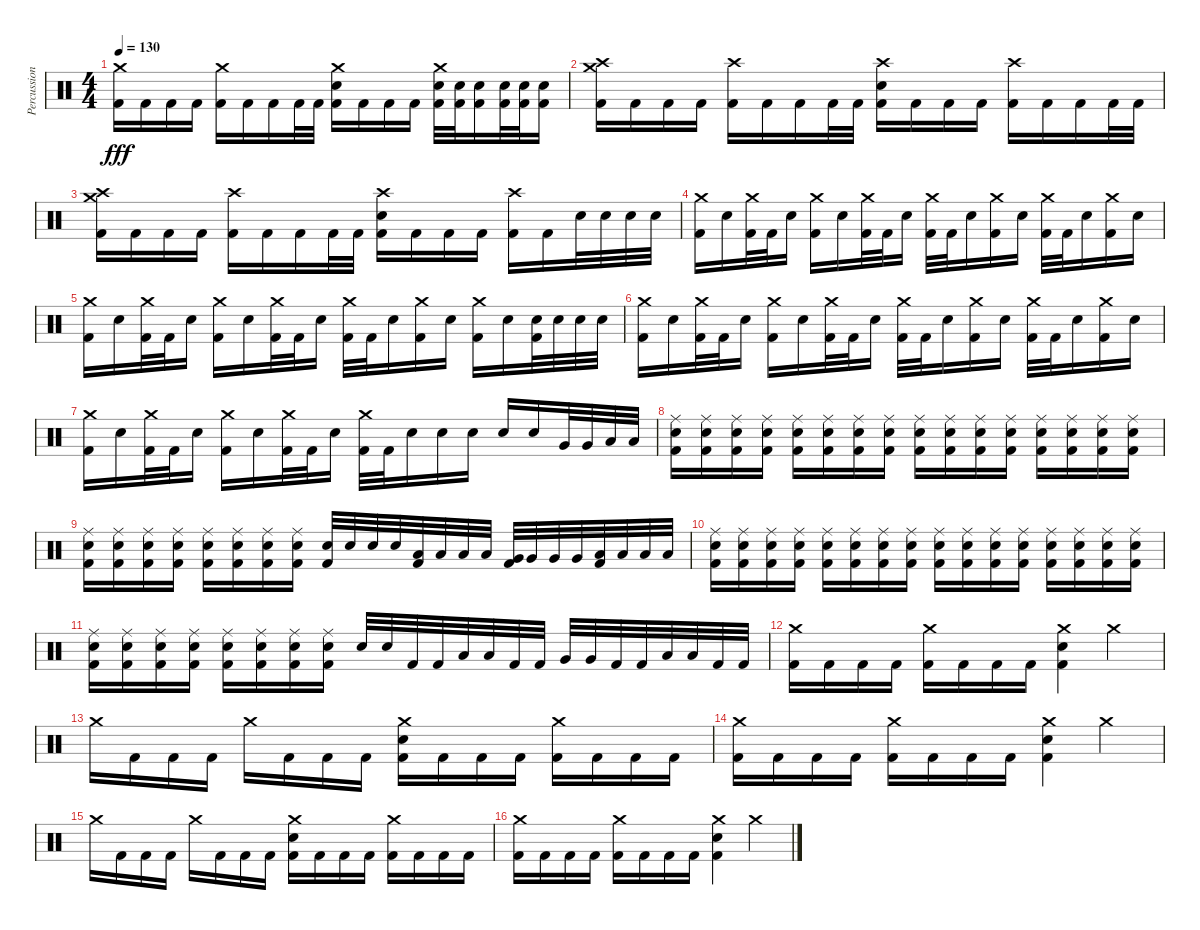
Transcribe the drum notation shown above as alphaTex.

\track ("Percussion" "Percussion") {instrument percussion}
\staff {score}
\articulation defaults
\ts (4 4)
\tempo 130
\clef neutral
\ks c
("Crash medium (hit)" "Kick (hit) 2").16{dy fff} "Kick (hit) 2".16 "Kick (hit) 2".16 "Kick (hit) 2".16 ("Crash medium (hit)" "Kick (hit) 2").16 "Kick (hit) 2".16 "Kick (hit) 2".16 "Kick (hit) 2".32 "Kick (hit) 2".32 ("Crash medium (hit)" "Electric Snare (hit)" "Kick (hit) 2").16 "Kick (hit) 2".16 "Kick (hit) 2".16 "Kick (hit) 2".16 ("Crash medium (hit)" "Electric Snare (hit)" "Kick (hit) 2").32 ("Electric Snare (hit)" "Kick (hit) 2").32 ("Electric Snare (hit)" "Kick (hit) 2").16 ("Electric Snare (hit)" "Kick (hit) 2").32 ("Electric Snare (hit)" "Kick (hit) 2").32 ("Electric Snare (hit)" "Kick (hit) 2").16 |
("Crash high (hit)" "Crash medium (hit)" "Kick (hit) 2").16 "Kick (hit) 2".16 "Kick (hit) 2".16 "Kick (hit) 2".16 ("Crash high (hit)" "Kick (hit) 2").16 "Kick (hit) 2".16 "Kick (hit) 2".16 "Kick (hit) 2".32 "Kick (hit) 2".32 ("Crash high (hit)" "Electric Snare (hit)" "Kick (hit) 2").16 "Kick (hit) 2".16 "Kick (hit) 2".16 "Kick (hit) 2".16 ("Crash high (hit)" "Kick (hit) 2").16 "Kick (hit) 2".16 "Kick (hit) 2".16 "Kick (hit) 2".32 "Kick (hit) 2".32 |
("Crash high (hit)" "Crash medium (hit)" "Kick (hit) 2").16 "Kick (hit) 2".16 "Kick (hit) 2".16 "Kick (hit) 2".16 ("Crash high (hit)" "Kick (hit) 2").16 "Kick (hit) 2".16 "Kick (hit) 2".16 "Kick (hit) 2".32 "Kick (hit) 2".32 ("Crash high (hit)" "Electric Snare (hit)" "Kick (hit) 2").16 "Kick (hit) 2".16 "Kick (hit) 2".16 "Kick (hit) 2".16 ("Crash high (hit)" "Kick (hit) 2").16 "Kick (hit) 2".16 "Electric Snare (hit)".32 "Electric Snare (hit)".32 "Electric Snare (hit)".32 "Electric Snare (hit)".32 |
("Crash medium (hit)" "Kick (hit) 2").16 "Electric Snare (hit)".16 ("Crash medium (hit)" "Kick (hit) 2").32 "Kick (hit) 2".32 "Electric Snare (hit)".16 ("Crash medium (hit)" "Kick (hit) 2").16 "Electric Snare (hit)".16 ("Crash medium (hit)" "Kick (hit) 2").32 "Kick (hit) 2".32 "Electric Snare (hit)".16 ("Crash medium (hit)" "Kick (hit) 2").32 "Kick (hit) 2".32 "Electric Snare (hit)".16 ("Crash medium (hit)" "Kick (hit) 2").16 "Electric Snare (hit)".16 ("Crash medium (hit)" "Kick (hit) 2").32 "Kick (hit) 2".32 "Electric Snare (hit)".16 ("Crash medium (hit)" "Kick (hit) 2").16 "Electric Snare (hit)".16 |
("Crash medium (hit)" "Kick (hit) 2").16 "Electric Snare (hit)".16 ("Crash medium (hit)" "Kick (hit) 2").32 "Kick (hit) 2".32 "Electric Snare (hit)".16 ("Crash medium (hit)" "Kick (hit) 2").16 "Electric Snare (hit)".16 ("Crash medium (hit)" "Kick (hit) 2").32 "Kick (hit) 2".32 "Electric Snare (hit)".16 ("Crash medium (hit)" "Kick (hit) 2").32 "Kick (hit) 2".32 "Electric Snare (hit)".16 ("Crash medium (hit)" "Kick (hit) 2").16 "Electric Snare (hit)".16 ("Crash medium (hit)" "Kick (hit) 2").16 "Electric Snare (hit)".16 ("Electric Snare (hit)" "Kick (hit) 2").32 "Electric Snare (hit)".32 "Electric Snare (hit)".32 "Electric Snare (hit)".32 |
("Crash medium (hit)" "Kick (hit) 2").16 "Electric Snare (hit)".16 ("Crash medium (hit)" "Kick (hit) 2").32 "Kick (hit) 2".32 "Electric Snare (hit)".16 ("Crash medium (hit)" "Kick (hit) 2").16 "Electric Snare (hit)".16 ("Crash medium (hit)" "Kick (hit) 2").32 "Kick (hit) 2".32 "Electric Snare (hit)".16 ("Crash medium (hit)" "Kick (hit) 2").32 "Kick (hit) 2".32 "Electric Snare (hit)".16 ("Crash medium (hit)" "Kick (hit) 2").16 "Electric Snare (hit)".16 ("Crash medium (hit)" "Kick (hit) 2").32 "Kick (hit) 2".32 "Electric Snare (hit)".16 ("Crash medium (hit)" "Kick (hit) 2").16 "Electric Snare (hit)".16 |
("Crash medium (hit)" "Kick (hit) 2").16 "Electric Snare (hit)".16 ("Crash medium (hit)" "Kick (hit) 2").32 "Kick (hit) 2".32 "Electric Snare (hit)".16 ("Crash medium (hit)" "Kick (hit) 2").16 "Electric Snare (hit)".16 ("Crash medium (hit)" "Kick (hit) 2").32 "Kick (hit) 2".32 "Electric Snare (hit)".16 ("Crash medium (hit)" "Kick (hit) 2").32 "Kick (hit) 2".32 "Electric Snare (hit)".16 "Electric Snare (hit)".16 "Electric Snare (hit)".16 "Electric Snare (hit)".16 "Electric Snare (hit)".16 "Very Low Tom (hit)".32 "Very Low Tom (hit)".32 "Low Floor Tom (hit)".32 "Low Floor Tom (hit)".32 |
("Ride (middle)" "Electric Snare (hit)" "Kick (hit) 2").16 ("Ride (middle)" "Electric Snare (hit)" "Kick (hit) 2").16 ("Ride (middle)" "Electric Snare (hit)" "Kick (hit) 2").16 ("Ride (middle)" "Electric Snare (hit)" "Kick (hit) 2").16 ("Ride (middle)" "Electric Snare (hit)" "Kick (hit) 2").16 ("Ride (middle)" "Electric Snare (hit)" "Kick (hit) 2").16 ("Ride (middle)" "Electric Snare (hit)" "Kick (hit) 2").16 ("Ride (middle)" "Electric Snare (hit)" "Kick (hit) 2").16 ("Ride (middle)" "Electric Snare (hit)" "Kick (hit) 2").16 ("Ride (middle)" "Electric Snare (hit)" "Kick (hit) 2").16 ("Ride (middle)" "Electric Snare (hit)" "Kick (hit) 2").16 ("Ride (middle)" "Electric Snare (hit)" "Kick (hit) 2").16 ("Ride (middle)" "Electric Snare (hit)" "Kick (hit) 2").16 ("Ride (middle)" "Electric Snare (hit)" "Kick (hit) 2").16 ("Ride (middle)" "Electric Snare (hit)" "Kick (hit) 2").16 ("Ride (middle)" "Electric Snare (hit)" "Kick (hit) 2").16 |
("Ride (middle)" "Electric Snare (hit)" "Kick (hit) 2").16 ("Ride (middle)" "Electric Snare (hit)" "Kick (hit) 2").16 ("Ride (middle)" "Electric Snare (hit)" "Kick (hit) 2").16 ("Ride (middle)" "Electric Snare (hit)" "Kick (hit) 2").16 ("Ride (middle)" "Electric Snare (hit)" "Kick (hit) 2").16 ("Ride (middle)" "Electric Snare (hit)" "Kick (hit) 2").16 ("Ride (middle)" "Electric Snare (hit)" "Kick (hit) 2").16 ("Ride (middle)" "Electric Snare (hit)" "Kick (hit) 2").16 ("Electric Snare (hit)" "Kick (hit) 2").32 "Electric Snare (hit)".32 "Electric Snare (hit)".32 "Electric Snare (hit)".32 ("Low Tom (hit)" "Kick (hit) 2").32 "Low Tom (hit)".32 "Low Tom (hit)".32 "Low Tom (hit)".32 ("Very Low Tom (hit)" "Kick (hit) 2").32 "Very Low Tom (hit)".32 "Very Low Tom (hit)".32 "Very Low Tom (hit)".32 ("Low Floor Tom (hit)" "Kick (hit) 2").32 "Low Floor Tom (hit)".32 "Low Floor Tom (hit)".32 "Low Floor Tom (hit)".32 |
("Ride (middle)" "Electric Snare (hit)" "Kick (hit) 2").16 ("Ride (middle)" "Electric Snare (hit)" "Kick (hit) 2").16 ("Ride (middle)" "Electric Snare (hit)" "Kick (hit) 2").16 ("Ride (middle)" "Electric Snare (hit)" "Kick (hit) 2").16 ("Ride (middle)" "Electric Snare (hit)" "Kick (hit) 2").16 ("Ride (middle)" "Electric Snare (hit)" "Kick (hit) 2").16 ("Ride (middle)" "Electric Snare (hit)" "Kick (hit) 2").16 ("Ride (middle)" "Electric Snare (hit)" "Kick (hit) 2").16 ("Ride (middle)" "Electric Snare (hit)" "Kick (hit) 2").16 ("Ride (middle)" "Electric Snare (hit)" "Kick (hit) 2").16 ("Ride (middle)" "Electric Snare (hit)" "Kick (hit) 2").16 ("Ride (middle)" "Electric Snare (hit)" "Kick (hit) 2").16 ("Ride (middle)" "Electric Snare (hit)" "Kick (hit) 2").16 ("Ride (middle)" "Electric Snare (hit)" "Kick (hit) 2").16 ("Ride (middle)" "Electric Snare (hit)" "Kick (hit) 2").16 ("Ride (middle)" "Electric Snare (hit)" "Kick (hit) 2").16 |
("Ride (middle)" "Electric Snare (hit)" "Kick (hit) 2").16 ("Ride (middle)" "Electric Snare (hit)" "Kick (hit) 2").16 ("Ride (middle)" "Electric Snare (hit)" "Kick (hit) 2").16 ("Ride (middle)" "Electric Snare (hit)" "Kick (hit) 2").16 ("Ride (middle)" "Electric Snare (hit)" "Kick (hit) 2").16 ("Ride (middle)" "Electric Snare (hit)" "Kick (hit) 2").16 ("Ride (middle)" "Electric Snare (hit)" "Kick (hit) 2").16 ("Ride (middle)" "Electric Snare (hit)" "Kick (hit) 2").16 "Electric Snare (hit)".32 "Electric Snare (hit)".32 "Kick (hit) 2".32 "Kick (hit) 2".32 "Low Tom (hit)".32 "Low Tom (hit)".32 "Kick (hit) 2".32 "Kick (hit) 2".32 "Very Low Tom (hit)".32 "Very Low Tom (hit)".32 "Kick (hit) 2".32 "Kick (hit) 2".32 "Low Floor Tom (hit)".32 "Low Floor Tom (hit)".32 "Kick (hit) 2".32 "Kick (hit) 2".32 |
("Crash medium (hit)" "Kick (hit) 2").16 "Kick (hit) 2".16 "Kick (hit) 2".16 "Kick (hit) 2".16 ("Crash medium (hit)" "Kick (hit) 2").16 "Kick (hit) 2".16 "Kick (hit) 2".16 "Kick (hit) 2".16 ("Crash medium (hit)" "Electric Snare (hit)" "Kick (hit) 2").4 "Crash medium (hit)".4 |
"Crash medium (hit)".16 "Kick (hit) 2".16 "Kick (hit) 2".16 "Kick (hit) 2".16 "Crash medium (hit)".16 "Kick (hit) 2".16 "Kick (hit) 2".16 "Kick (hit) 2".16 ("Crash medium (hit)" "Electric Snare (hit)" "Kick (hit) 2").16 "Kick (hit) 2".16 "Kick (hit) 2".16 "Kick (hit) 2".16 ("Crash medium (hit)" "Kick (hit) 2").16 "Kick (hit) 2".16 "Kick (hit) 2".16 "Kick (hit) 2".16 |
("Crash medium (hit)" "Kick (hit) 2").16 "Kick (hit) 2".16 "Kick (hit) 2".16 "Kick (hit) 2".16 ("Crash medium (hit)" "Kick (hit) 2").16 "Kick (hit) 2".16 "Kick (hit) 2".16 "Kick (hit) 2".16 ("Crash medium (hit)" "Electric Snare (hit)" "Kick (hit) 2").4 "Crash medium (hit)".4 |
"Crash medium (hit)".16 "Kick (hit) 2".16 "Kick (hit) 2".16 "Kick (hit) 2".16 "Crash medium (hit)".16 "Kick (hit) 2".16 "Kick (hit) 2".16 "Kick (hit) 2".16 ("Crash medium (hit)" "Electric Snare (hit)" "Kick (hit) 2").16 "Kick (hit) 2".16 "Kick (hit) 2".16 "Kick (hit) 2".16 ("Crash medium (hit)" "Kick (hit) 2").16 "Kick (hit) 2".16 "Kick (hit) 2".16 "Kick (hit) 2".16 |
("Crash medium (hit)" "Kick (hit) 2").16 "Kick (hit) 2".16 "Kick (hit) 2".16 "Kick (hit) 2".16 ("Crash medium (hit)" "Kick (hit) 2").16 "Kick (hit) 2".16 "Kick (hit) 2".16 "Kick (hit) 2".16 ("Crash medium (hit)" "Electric Snare (hit)" "Kick (hit) 2").4 "Crash medium (hit)".4
